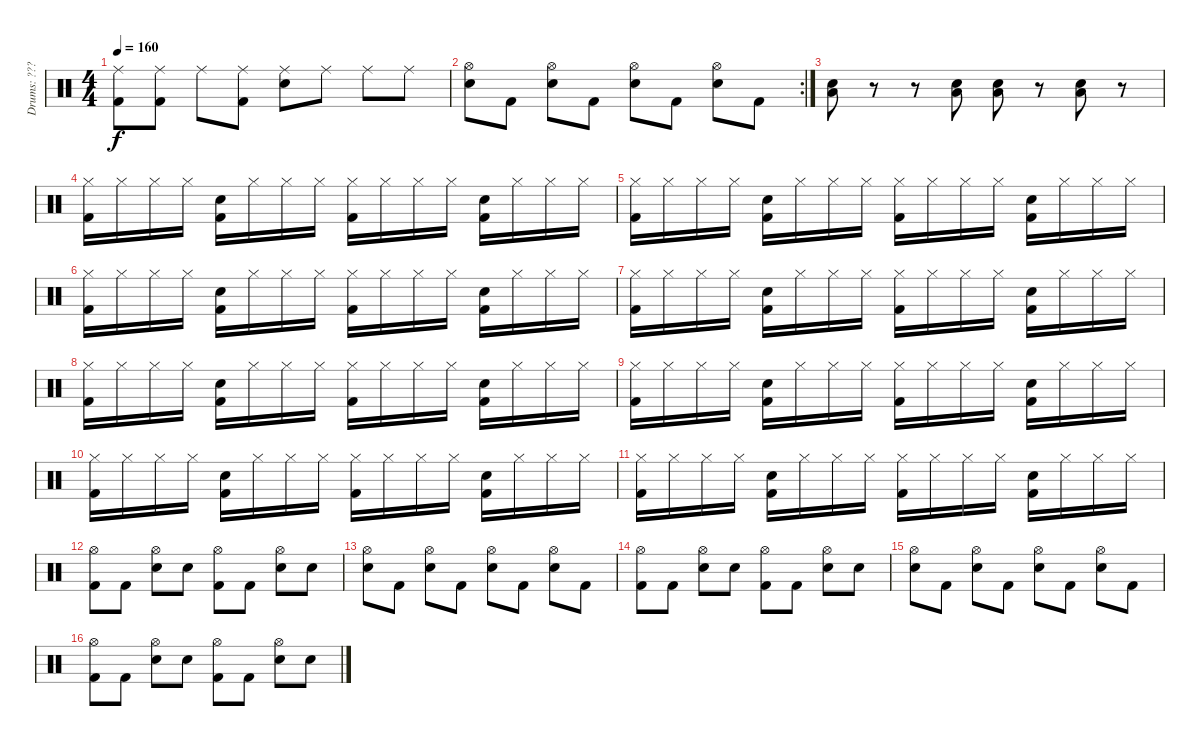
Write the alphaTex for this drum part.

\track ("Drums: ???" "Drums: ???") {instrument percussion}
\staff {score}
\articulation defaults
\ts (4 4)
\tempo 160
\clef neutral
\ks c
("Ride (middle)" "Kick (hit) 2").8{dy f} ("Ride (middle)" "Kick (hit) 2").8 "Ride (middle)".8 ("Ride (middle)" "Kick (hit) 2").8 ("Ride (middle)" "Snare (hit) 2").8 "Ride (middle)".8 "Ride (middle)".8 "Ride (middle)".8 |
\rc 2
("Snare (hit) 2" "Hi-Hat (open)").8 "Kick (hit) 2".8 ("Snare (hit) 2" "Hi-Hat (open)").8 "Kick (hit) 2".8 ("Snare (hit) 2" "Hi-Hat (open)").8 "Kick (hit) 2".8 ("Snare (hit) 2" "Hi-Hat (open)").8 "Kick (hit) 2".8 |
("Snare (hit) 2" "Low Floor Tom (hit)").8 r.8 r.8 ("Snare (hit) 2" "Low Floor Tom (hit)").8 ("Snare (hit) 2" "Low Floor Tom (hit)").8 r.8 ("Snare (hit) 2" "Low Floor Tom (hit)").8 r.8 |
("Hi-Hat (closed)" "Kick (hit) 2").16 "Hi-Hat (closed)".16 "Hi-Hat (closed)".16 "Hi-Hat (closed)".16 ("Snare (hit) 2" "Kick (hit) 2").16 "Hi-Hat (closed)".16 "Hi-Hat (closed)".16 "Hi-Hat (closed)".16 ("Hi-Hat (closed)" "Kick (hit) 2").16 "Hi-Hat (closed)".16 "Hi-Hat (closed)".16 "Hi-Hat (closed)".16 ("Snare (hit) 2" "Kick (hit) 2").16 "Hi-Hat (closed)".16 "Hi-Hat (closed)".16 "Hi-Hat (closed)".16 |
("Hi-Hat (closed)" "Kick (hit) 2").16 "Hi-Hat (closed)".16 "Hi-Hat (closed)".16 "Hi-Hat (closed)".16 ("Snare (hit) 2" "Kick (hit) 2").16 "Hi-Hat (closed)".16 "Hi-Hat (closed)".16 "Hi-Hat (closed)".16 ("Hi-Hat (closed)" "Kick (hit) 2").16 "Hi-Hat (closed)".16 "Hi-Hat (closed)".16 "Hi-Hat (closed)".16 ("Snare (hit) 2" "Kick (hit) 2").16 "Hi-Hat (closed)".16 "Hi-Hat (closed)".16 "Hi-Hat (closed)".16 |
("Hi-Hat (closed)" "Kick (hit) 2").16 "Hi-Hat (closed)".16 "Hi-Hat (closed)".16 "Hi-Hat (closed)".16 ("Snare (hit) 2" "Kick (hit) 2").16 "Hi-Hat (closed)".16 "Hi-Hat (closed)".16 "Hi-Hat (closed)".16 ("Hi-Hat (closed)" "Kick (hit) 2").16 "Hi-Hat (closed)".16 "Hi-Hat (closed)".16 "Hi-Hat (closed)".16 ("Snare (hit) 2" "Kick (hit) 2").16 "Hi-Hat (closed)".16 "Hi-Hat (closed)".16 "Hi-Hat (closed)".16 |
("Hi-Hat (closed)" "Kick (hit) 2").16 "Hi-Hat (closed)".16 "Hi-Hat (closed)".16 "Hi-Hat (closed)".16 ("Snare (hit) 2" "Kick (hit) 2").16 "Hi-Hat (closed)".16 "Hi-Hat (closed)".16 "Hi-Hat (closed)".16 ("Hi-Hat (closed)" "Kick (hit) 2").16 "Hi-Hat (closed)".16 "Hi-Hat (closed)".16 "Hi-Hat (closed)".16 ("Snare (hit) 2" "Kick (hit) 2").16 "Hi-Hat (closed)".16 "Hi-Hat (closed)".16 "Hi-Hat (closed)".16 |
("Hi-Hat (closed)" "Kick (hit) 2").16 "Hi-Hat (closed)".16 "Hi-Hat (closed)".16 "Hi-Hat (closed)".16 ("Snare (hit) 2" "Kick (hit) 2").16 "Hi-Hat (closed)".16 "Hi-Hat (closed)".16 "Hi-Hat (closed)".16 ("Hi-Hat (closed)" "Kick (hit) 2").16 "Hi-Hat (closed)".16 "Hi-Hat (closed)".16 "Hi-Hat (closed)".16 ("Snare (hit) 2" "Kick (hit) 2").16 "Hi-Hat (closed)".16 "Hi-Hat (closed)".16 "Hi-Hat (closed)".16 |
("Hi-Hat (closed)" "Kick (hit) 2").16 "Hi-Hat (closed)".16 "Hi-Hat (closed)".16 "Hi-Hat (closed)".16 ("Snare (hit) 2" "Kick (hit) 2").16 "Hi-Hat (closed)".16 "Hi-Hat (closed)".16 "Hi-Hat (closed)".16 ("Hi-Hat (closed)" "Kick (hit) 2").16 "Hi-Hat (closed)".16 "Hi-Hat (closed)".16 "Hi-Hat (closed)".16 ("Snare (hit) 2" "Kick (hit) 2").16 "Hi-Hat (closed)".16 "Hi-Hat (closed)".16 "Hi-Hat (closed)".16 |
("Hi-Hat (closed)" "Kick (hit) 2").16 "Hi-Hat (closed)".16 "Hi-Hat (closed)".16 "Hi-Hat (closed)".16 ("Snare (hit) 2" "Kick (hit) 2").16 "Hi-Hat (closed)".16 "Hi-Hat (closed)".16 "Hi-Hat (closed)".16 ("Hi-Hat (closed)" "Kick (hit) 2").16 "Hi-Hat (closed)".16 "Hi-Hat (closed)".16 "Hi-Hat (closed)".16 ("Snare (hit) 2" "Kick (hit) 2").16 "Hi-Hat (closed)".16 "Hi-Hat (closed)".16 "Hi-Hat (closed)".16 |
("Hi-Hat (closed)" "Kick (hit) 2").16 "Hi-Hat (closed)".16 "Hi-Hat (closed)".16 "Hi-Hat (closed)".16 ("Snare (hit) 2" "Kick (hit) 2").16 "Hi-Hat (closed)".16 "Hi-Hat (closed)".16 "Hi-Hat (closed)".16 ("Hi-Hat (closed)" "Kick (hit) 2").16 "Hi-Hat (closed)".16 "Hi-Hat (closed)".16 "Hi-Hat (closed)".16 ("Snare (hit) 2" "Kick (hit) 2").16 "Hi-Hat (closed)".16 "Hi-Hat (closed)".16 "Hi-Hat (closed)".16 |
("Hi-Hat (open)" "Kick (hit) 2").8 "Kick (hit) 2".8 ("Hi-Hat (open)" "Snare (hit) 2").8 "Snare (hit) 2".8 ("Hi-Hat (open)" "Kick (hit) 2").8 "Kick (hit) 2".8 ("Hi-Hat (open)" "Snare (hit) 2").8 "Snare (hit) 2".8 |
("Snare (hit) 2" "Hi-Hat (open)").8 "Kick (hit) 2".8 ("Snare (hit) 2" "Hi-Hat (open)").8 "Kick (hit) 2".8 ("Snare (hit) 2" "Hi-Hat (open)").8 "Kick (hit) 2".8 ("Snare (hit) 2" "Hi-Hat (open)").8 "Kick (hit) 2".8 |
("Hi-Hat (open)" "Kick (hit) 2").8 "Kick (hit) 2".8 ("Hi-Hat (open)" "Snare (hit) 2").8 "Snare (hit) 2".8 ("Hi-Hat (open)" "Kick (hit) 2").8 "Kick (hit) 2".8 ("Hi-Hat (open)" "Snare (hit) 2").8 "Snare (hit) 2".8 |
("Snare (hit) 2" "Hi-Hat (open)").8 "Kick (hit) 2".8 ("Snare (hit) 2" "Hi-Hat (open)").8 "Kick (hit) 2".8 ("Snare (hit) 2" "Hi-Hat (open)").8 "Kick (hit) 2".8 ("Snare (hit) 2" "Hi-Hat (open)").8 "Kick (hit) 2".8 |
("Hi-Hat (open)" "Kick (hit) 2").8 "Kick (hit) 2".8 ("Hi-Hat (open)" "Snare (hit) 2").8 "Snare (hit) 2".8 ("Hi-Hat (open)" "Kick (hit) 2").8 "Kick (hit) 2".8 ("Hi-Hat (open)" "Snare (hit) 2").8 "Snare (hit) 2".8
